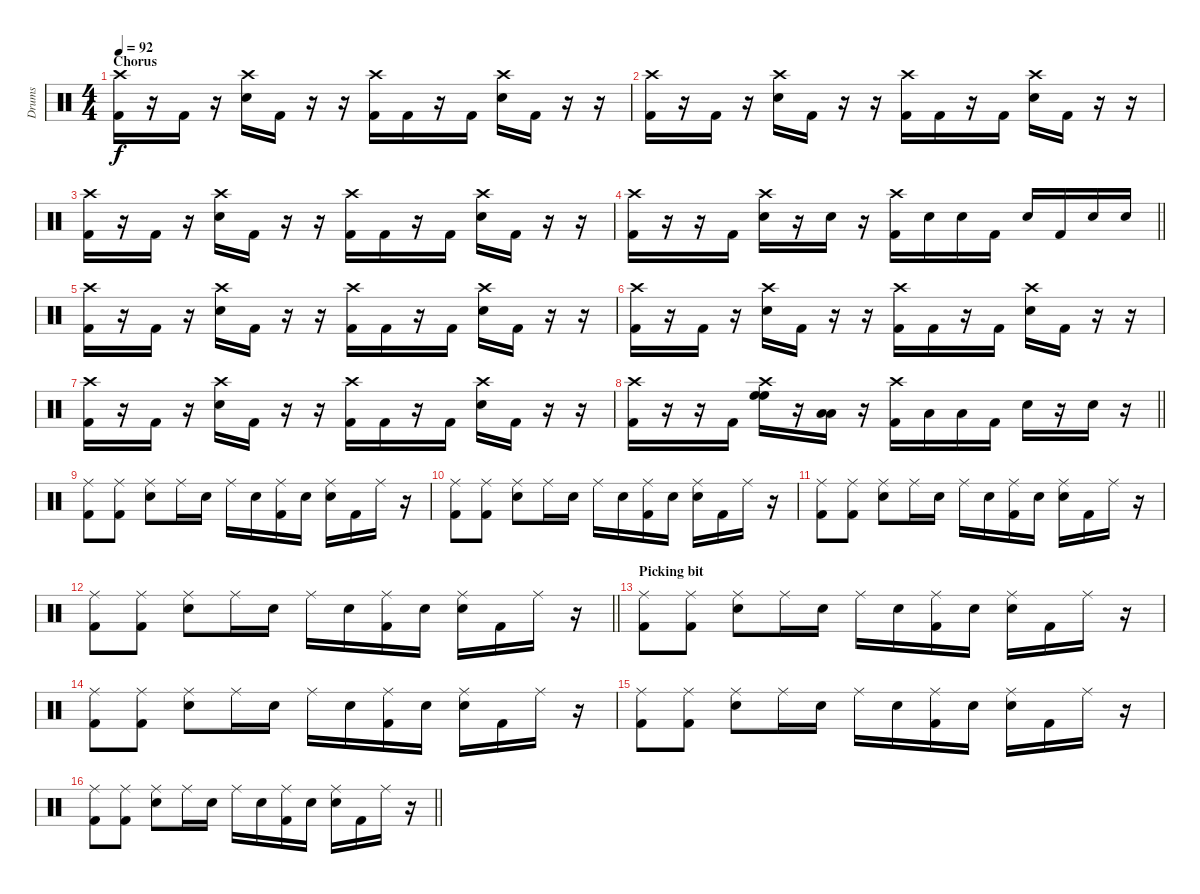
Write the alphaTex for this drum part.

\track ("Drums" "Drums") {instrument percussion}
\staff {score}
\articulation defaults
\ts (4 4)
\section ("" "Chorus")
\tempo 92
\clef neutral
\ks c
("Crash high (hit)" "Kick (hit) 2").16{dy f} r.16 "Kick (hit) 2".16 r.16 ("Crash high (hit)" "Snare (hit) 2").16 "Kick (hit) 2".16 r.16 r.16 ("Crash high (hit)" "Kick (hit) 2").16 "Kick (hit) 2".16 r.16 "Kick (hit) 2".16 ("Crash high (hit)" "Snare (hit) 2").16 "Kick (hit) 2".16 r.16 r.16 |
("Crash high (hit)" "Kick (hit) 2").16 r.16 "Kick (hit) 2".16 r.16 ("Crash high (hit)" "Snare (hit) 2").16 "Kick (hit) 2".16 r.16 r.16 ("Crash high (hit)" "Kick (hit) 2").16 "Kick (hit) 2".16 r.16 "Kick (hit) 2".16 ("Crash high (hit)" "Snare (hit) 2").16 "Kick (hit) 2".16 r.16 r.16 |
("Crash high (hit)" "Kick (hit) 2").16 r.16 "Kick (hit) 2".16 r.16 ("Crash high (hit)" "Snare (hit) 2").16 "Kick (hit) 2".16 r.16 r.16 ("Crash high (hit)" "Kick (hit) 2").16 "Kick (hit) 2".16 r.16 "Kick (hit) 2".16 ("Crash high (hit)" "Snare (hit) 2").16 "Kick (hit) 2".16 r.16 r.16 |
\barLineRight lightlight
("Crash high (hit)" "Kick (hit) 2").16 r.16 r.16 "Kick (hit) 2".16 ("Crash high (hit)" "Snare (hit) 2").16 r.16 "Snare (hit) 2".16 r.16 ("Crash high (hit)" "Kick (hit) 2").16 "Snare (hit) 2".16 "Snare (hit) 2".16 "Kick (hit) 2".16 "Snare (hit) 2".16 "Kick (hit) 2".16 "Snare (hit) 2".16 "Snare (hit) 2".16 |
("Crash high (hit)" "Kick (hit) 2").16 r.16 "Kick (hit) 2".16 r.16 ("Crash high (hit)" "Snare (hit) 2").16 "Kick (hit) 2".16 r.16 r.16 ("Crash high (hit)" "Kick (hit) 2").16 "Kick (hit) 2".16 r.16 "Kick (hit) 2".16 ("Crash high (hit)" "Snare (hit) 2").16 "Kick (hit) 2".16 r.16 r.16 |
("Crash high (hit)" "Kick (hit) 2").16 r.16 "Kick (hit) 2".16 r.16 ("Crash high (hit)" "Snare (hit) 2").16 "Kick (hit) 2".16 r.16 r.16 ("Crash high (hit)" "Kick (hit) 2").16 "Kick (hit) 2".16 r.16 "Kick (hit) 2".16 ("Crash high (hit)" "Snare (hit) 2").16 "Kick (hit) 2".16 r.16 r.16 |
("Crash high (hit)" "Kick (hit) 2").16 r.16 "Kick (hit) 2".16 r.16 ("Crash high (hit)" "Snare (hit) 2").16 "Kick (hit) 2".16 r.16 r.16 ("Crash high (hit)" "Kick (hit) 2").16 "Kick (hit) 2".16 r.16 "Kick (hit) 2".16 ("Crash high (hit)" "Snare (hit) 2").16 "Kick (hit) 2".16 r.16 r.16 |
\barLineRight lightlight
("Crash high (hit)" "Kick (hit) 2").16 r.16 r.16 "Kick (hit) 2".16 ("Crash high (hit)" "High Floor Tom (hit)" "High Floor Tom (hit)").16 r.16 ("Low Tom (hit)" "Low Tom (hit)").16 r.16 ("Crash high (hit)" "Kick (hit) 2").16 "Low Tom (hit)".16 "Low Floor Tom (hit)".16 "Kick (hit) 2".16 "Snare (hit) 2".16 r.16 "Snare (hit) 2".16 r.16 |
("Ride (middle)" "Kick (hit) 2").8 ("Ride (middle)" "Kick (hit) 2").8 ("Ride (middle)" "Snare (hit) 2").8 "Ride (middle)".16 "Snare (hit) 2".16 "Ride (middle)".16 "Snare (hit) 2".16 ("Ride (middle)" "Kick (hit) 2").16 "Snare (hit) 2".16 ("Ride (middle)" "Snare (hit) 2").16 "Kick (hit) 2".16 "Ride (middle)".16 r.16 |
("Ride (middle)" "Kick (hit) 2").8 ("Ride (middle)" "Kick (hit) 2").8 ("Ride (middle)" "Snare (hit) 2").8 "Ride (middle)".16 "Snare (hit) 2".16 "Ride (middle)".16 "Snare (hit) 2".16 ("Ride (middle)" "Kick (hit) 2").16 "Snare (hit) 2".16 ("Ride (middle)" "Snare (hit) 2").16 "Kick (hit) 2".16 "Ride (middle)".16 r.16 |
("Ride (middle)" "Kick (hit) 2").8 ("Ride (middle)" "Kick (hit) 2").8 ("Ride (middle)" "Snare (hit) 2").8 "Ride (middle)".16 "Snare (hit) 2".16 "Ride (middle)".16 "Snare (hit) 2".16 ("Ride (middle)" "Kick (hit) 2").16 "Snare (hit) 2".16 ("Ride (middle)" "Snare (hit) 2").16 "Kick (hit) 2".16 "Ride (middle)".16 r.16 |
\barLineRight lightlight
("Ride (middle)" "Kick (hit) 2").8 ("Ride (middle)" "Kick (hit) 2").8 ("Ride (middle)" "Snare (hit) 2").8 "Ride (middle)".16 "Snare (hit) 2".16 "Ride (middle)".16 "Snare (hit) 2".16 ("Ride (middle)" "Kick (hit) 2").16 "Snare (hit) 2".16 ("Ride (middle)" "Snare (hit) 2").16 "Kick (hit) 2".16 "Ride (middle)".16 r.16 |
\section ("" "Picking bit")
("Ride (middle)" "Kick (hit) 2").8 ("Ride (middle)" "Kick (hit) 2").8 ("Ride (middle)" "Snare (hit) 2").8 "Ride (middle)".16 "Snare (hit) 2".16 "Ride (middle)".16 "Snare (hit) 2".16 ("Ride (middle)" "Kick (hit) 2").16 "Snare (hit) 2".16 ("Ride (middle)" "Snare (hit) 2").16 "Kick (hit) 2".16 "Ride (middle)".16 r.16 |
("Ride (middle)" "Kick (hit) 2").8 ("Ride (middle)" "Kick (hit) 2").8 ("Ride (middle)" "Snare (hit) 2").8 "Ride (middle)".16 "Snare (hit) 2".16 "Ride (middle)".16 "Snare (hit) 2".16 ("Ride (middle)" "Kick (hit) 2").16 "Snare (hit) 2".16 ("Ride (middle)" "Snare (hit) 2").16 "Kick (hit) 2".16 "Ride (middle)".16 r.16 |
("Ride (middle)" "Kick (hit) 2").8 ("Ride (middle)" "Kick (hit) 2").8 ("Ride (middle)" "Snare (hit) 2").8 "Ride (middle)".16 "Snare (hit) 2".16 "Ride (middle)".16 "Snare (hit) 2".16 ("Ride (middle)" "Kick (hit) 2").16 "Snare (hit) 2".16 ("Ride (middle)" "Snare (hit) 2").16 "Kick (hit) 2".16 "Ride (middle)".16 r.16 |
\barLineRight lightlight
("Ride (middle)" "Kick (hit) 2").8 ("Ride (middle)" "Kick (hit) 2").8 ("Ride (middle)" "Snare (hit) 2").8 "Ride (middle)".16 "Snare (hit) 2".16 "Ride (middle)".16 "Snare (hit) 2".16 ("Ride (middle)" "Kick (hit) 2").16 "Snare (hit) 2".16 ("Ride (middle)" "Snare (hit) 2").16 "Kick (hit) 2".16 "Ride (middle)".16 r.16
